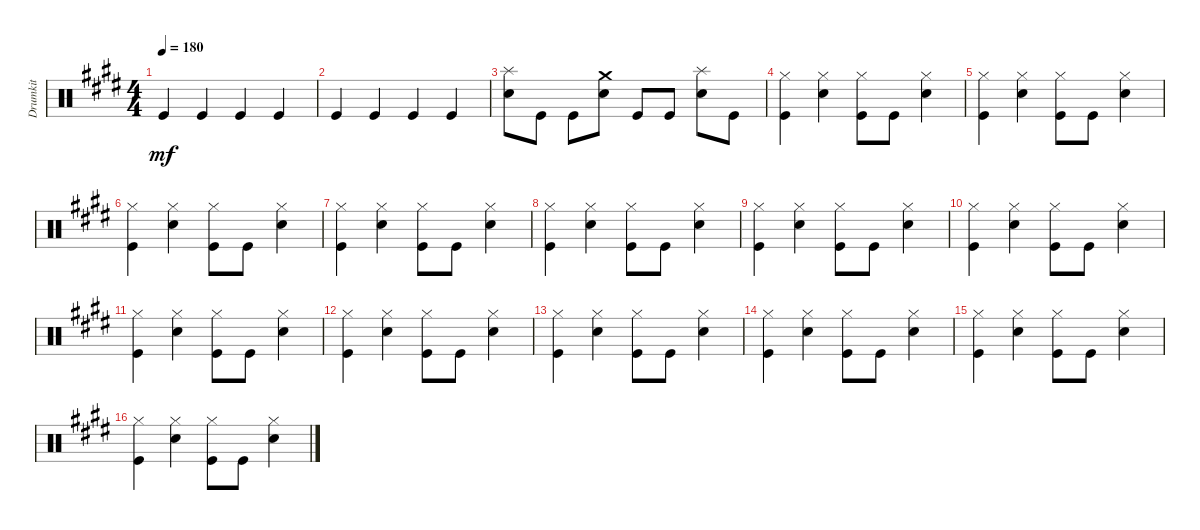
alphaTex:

\track ("Drumkit" "Drumkit") {instrument percussion}
\staff {score}
\articulation defaults
\ts (4 4)
\tempo 180
\clef neutral
\ks e "Kick (hit)".4{dy mf} "Kick (hit)".4 "Kick (hit)".4 "Kick (hit)".4
|
"Kick (hit)".4 "Kick (hit)".4 "Kick (hit)".4 "Kick (hit)".4 |
("Snare (hit) 2" "Splash (hit)").8 "Kick (hit)".8 "Kick (hit)".8 ("Snare (hit) 2" "Crash medium (hit)").8 "Kick (hit)".8 "Kick (hit)".8 ("Snare (hit) 2" "Splash (hit)").8 "Kick (hit)".8 |
("Kick (hit)" "Hi-Hat (closed)").4 ("Snare (hit) 2" "Hi-Hat (closed)").4 ("Kick (hit)" "Hi-Hat (closed)").8 "Kick (hit)".8 ("Snare (hit) 2" "Hi-Hat (closed)").4 |
("Kick (hit)" "Hi-Hat (closed)").4 ("Snare (hit) 2" "Hi-Hat (closed)").4 ("Kick (hit)" "Hi-Hat (closed)").8 "Kick (hit)".8 ("Snare (hit) 2" "Hi-Hat (closed)").4 |
("Kick (hit)" "Hi-Hat (closed)").4 ("Snare (hit) 2" "Hi-Hat (closed)").4 ("Kick (hit)" "Hi-Hat (closed)").8 "Kick (hit)".8 ("Snare (hit) 2" "Hi-Hat (closed)").4 |
("Kick (hit)" "Hi-Hat (closed)").4 ("Snare (hit) 2" "Hi-Hat (closed)").4 ("Kick (hit)" "Hi-Hat (closed)").8 "Kick (hit)".8 ("Snare (hit) 2" "Hi-Hat (closed)").4 |
("Kick (hit)" "Hi-Hat (closed)").4 ("Snare (hit) 2" "Hi-Hat (closed)").4 ("Kick (hit)" "Hi-Hat (closed)").8 "Kick (hit)".8 ("Snare (hit) 2" "Hi-Hat (closed)").4 |
("Kick (hit)" "Hi-Hat (closed)").4 ("Snare (hit) 2" "Hi-Hat (closed)").4 ("Kick (hit)" "Hi-Hat (closed)").8 "Kick (hit)".8 ("Snare (hit) 2" "Hi-Hat (closed)").4 |
("Kick (hit)" "Hi-Hat (closed)").4 ("Snare (hit) 2" "Hi-Hat (closed)").4 ("Kick (hit)" "Hi-Hat (closed)").8 "Kick (hit)".8 ("Snare (hit) 2" "Hi-Hat (closed)").4 |
("Kick (hit)" "Hi-Hat (closed)").4 ("Snare (hit) 2" "Hi-Hat (closed)").4 ("Kick (hit)" "Hi-Hat (closed)").8 "Kick (hit)".8 ("Snare (hit) 2" "Hi-Hat (closed)").4 |
("Kick (hit)" "Hi-Hat (closed)").4 ("Snare (hit) 2" "Hi-Hat (closed)").4 ("Kick (hit)" "Hi-Hat (closed)").8 "Kick (hit)".8 ("Snare (hit) 2" "Hi-Hat (closed)").4 |
("Kick (hit)" "Hi-Hat (closed)").4 ("Snare (hit) 2" "Hi-Hat (closed)").4 ("Kick (hit)" "Hi-Hat (closed)").8 "Kick (hit)".8 ("Snare (hit) 2" "Hi-Hat (closed)").4 |
("Kick (hit)" "Hi-Hat (closed)").4 ("Snare (hit) 2" "Hi-Hat (closed)").4 ("Kick (hit)" "Hi-Hat (closed)").8 "Kick (hit)".8 ("Snare (hit) 2" "Hi-Hat (closed)").4 |
("Kick (hit)" "Hi-Hat (closed)").4 ("Snare (hit) 2" "Hi-Hat (closed)").4 ("Kick (hit)" "Hi-Hat (closed)").8 "Kick (hit)".8 ("Snare (hit) 2" "Hi-Hat (closed)").4 |
("Kick (hit)" "Hi-Hat (closed)").4 ("Snare (hit) 2" "Hi-Hat (closed)").4 ("Kick (hit)" "Hi-Hat (closed)").8 "Kick (hit)".8 ("Snare (hit) 2" "Hi-Hat (closed)").4
